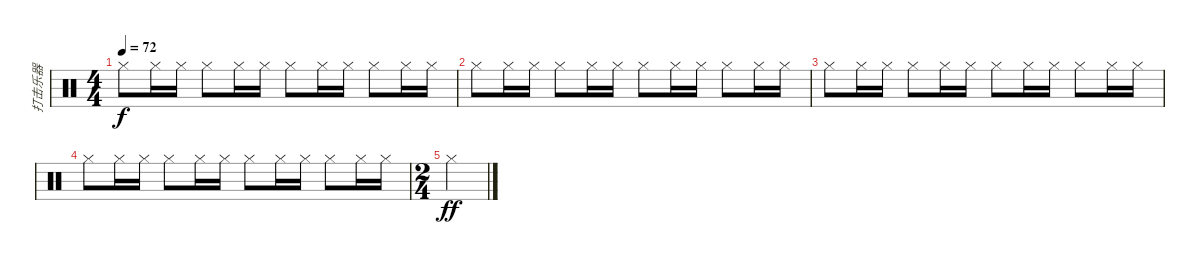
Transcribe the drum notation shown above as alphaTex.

\track ("打击乐器" "打击乐器") {instrument percussion}
\staff {score}
\articulation defaults
\ts (4 4)
\tempo 72
\clef neutral
\ks c "Hi-Hat (closed)".8{dy f} "Hi-Hat (closed)".16 "Hi-Hat (closed)".16 "Hi-Hat (closed)".8 "Hi-Hat (closed)".16 "Hi-Hat (closed)".16 "Hi-Hat (closed)".8 "Hi-Hat (closed)".16 "Hi-Hat (closed)".16 "Hi-Hat (closed)".8 "Hi-Hat (closed)".16 "Hi-Hat (closed)".16
|
"Hi-Hat (closed)".8 "Hi-Hat (closed)".16 "Hi-Hat (closed)".16 "Hi-Hat (closed)".8 "Hi-Hat (closed)".16 "Hi-Hat (closed)".16 "Hi-Hat (closed)".8 "Hi-Hat (closed)".16 "Hi-Hat (closed)".16 "Hi-Hat (closed)".8 "Hi-Hat (closed)".16 "Hi-Hat (closed)".16 |
"Hi-Hat (closed)".8 "Hi-Hat (closed)".16 "Hi-Hat (closed)".16 "Hi-Hat (closed)".8 "Hi-Hat (closed)".16 "Hi-Hat (closed)".16 "Hi-Hat (closed)".8 "Hi-Hat (closed)".16 "Hi-Hat (closed)".16 "Hi-Hat (closed)".8 "Hi-Hat (closed)".16 "Hi-Hat (closed)".16 |
"Hi-Hat (closed)".8 "Hi-Hat (closed)".16 "Hi-Hat (closed)".16 "Hi-Hat (closed)".8 "Hi-Hat (closed)".16 "Hi-Hat (closed)".16 "Hi-Hat (closed)".8 "Hi-Hat (closed)".16 "Hi-Hat (closed)".16 "Hi-Hat (closed)".8 "Hi-Hat (closed)".16 "Hi-Hat (closed)".16 |
\ts (2 4)
"Hi-Hat (closed)".4{dy ff}
